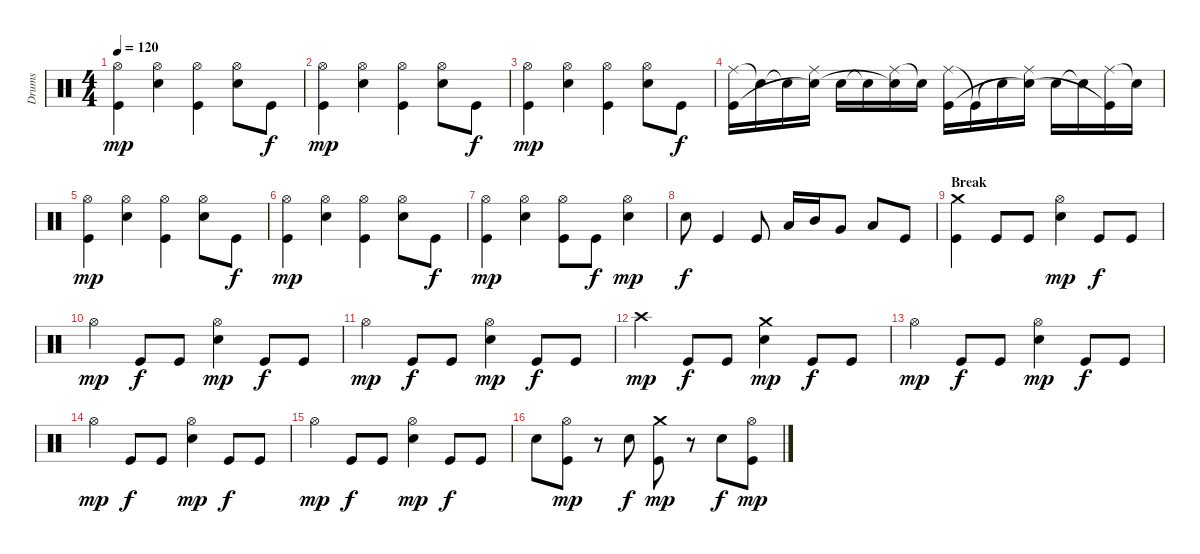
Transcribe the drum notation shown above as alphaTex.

\track ("Drums" "Drums") {instrument percussion}
\staff {score}
\articulation defaults
\ts (4 4)
\tempo 120
\clef neutral
\ks c
("Hi-Hat (open)" "Kick (hit)").4{dy mp} ("Hi-Hat (open)" "Electric Snare (hit)").4 ("Hi-Hat (open)" "Kick (hit)").4 ("Hi-Hat (open)" "Electric Snare (hit)").8 "Kick (hit)".8{dy f} |
("Hi-Hat (open)" "Kick (hit)").4{dy mp} ("Hi-Hat (open)" "Electric Snare (hit)").4 ("Hi-Hat (open)" "Kick (hit)").4 ("Hi-Hat (open)" "Electric Snare (hit)").8 "Kick (hit)".8{dy f} |
("Hi-Hat (open)" "Kick (hit)").4{dy mp} ("Hi-Hat (open)" "Electric Snare (hit)").4 ("Hi-Hat (open)" "Kick (hit)").4 ("Hi-Hat (open)" "Electric Snare (hit)").8 "Kick (hit)".8{dy f} |
("Ride (middle)" "Kick (hit)").16 "Snare (hit)"{t}.16 "Snare (hit)"{t}.16 ("Ride (middle)" "Snare (hit)"{t}).16 "Electric Snare (hit)".16 "Snare (hit)"{t}.16 ("Ride (middle)" "Snare (hit)"{t}).16 "Snare (hit)"{t}.16 ("Ride (middle)" "Kick (hit)").16 "Kick (hit)"{t}.16 "Snare (hit)"{t}.16 ("Ride (middle)" "Snare (hit)"{t}).16 "Electric Snare (hit)".16 "Snare (hit)"{t}.16 ("Ride (middle)" "Kick (hit)"{t}).16 "Snare (hit)"{t}.16 |
("Hi-Hat (open)" "Kick (hit)").4{dy mp} ("Hi-Hat (open)" "Electric Snare (hit)").4 ("Hi-Hat (open)" "Kick (hit)").4 ("Hi-Hat (open)" "Electric Snare (hit)").8 "Kick (hit)".8{dy f} |
("Hi-Hat (open)" "Kick (hit)").4{dy mp} ("Hi-Hat (open)" "Electric Snare (hit)").4 ("Hi-Hat (open)" "Kick (hit)").4 ("Hi-Hat (open)" "Electric Snare (hit)").8 "Kick (hit)".8{dy f} |
("Hi-Hat (open)" "Kick (hit)").4{dy mp} ("Hi-Hat (open)" "Electric Snare (hit)").4 ("Hi-Hat (open)" "Kick (hit)").8 "Kick (hit)".8{dy f} ("Hi-Hat (open)" "Electric Snare (hit)").4{dy mp} |
"Electric Snare (hit)".8{dy f} "Kick (hit)".4 "Kick (hit)".8 "Low Tom (hit)".16 "Mid Tom (hit)".16 "Very Low Tom (hit)".8 "Low Floor Tom (hit)".8 "Kick (hit)".8 |
\section ("" "Break")
("Crash medium (hit)" "Kick (hit)").4 "Kick (hit)".8 "Kick (hit)".8 ("Hi-Hat (open)" "Electric Snare (hit)").4{dy mp} "Kick (hit)".8{dy f} "Kick (hit)".8 |
"Hi-Hat (open)".4{dy mp} "Kick (hit)".8{dy f} "Kick (hit)".8 ("Hi-Hat (open)" "Electric Snare (hit)").4{dy mp} "Kick (hit)".8{dy f} "Kick (hit)".8 |
"Hi-Hat (open)".4{dy mp} "Kick (hit)".8{dy f} "Kick (hit)".8 ("Hi-Hat (open)" "Electric Snare (hit)").4{dy mp} "Kick (hit)".8{dy f} "Kick (hit)".8 |
"Crash high (hit)".4{dy mp} "Kick (hit)".8{dy f} "Kick (hit)".8 ("Crash medium (hit)" "Electric Snare (hit)").4{dy mp} "Kick (hit)".8{dy f} "Kick (hit)".8 |
"Hi-Hat (open)".4{dy mp} "Kick (hit)".8{dy f} "Kick (hit)".8 ("Hi-Hat (open)" "Electric Snare (hit)").4{dy mp} "Kick (hit)".8{dy f} "Kick (hit)".8 |
"Hi-Hat (open)".4{dy mp} "Kick (hit)".8{dy f} "Kick (hit)".8 ("Hi-Hat (open)" "Electric Snare (hit)").4{dy mp} "Kick (hit)".8{dy f} "Kick (hit)".8 |
"Hi-Hat (open)".4{dy mp} "Kick (hit)".8{dy f} "Kick (hit)".8 ("Hi-Hat (open)" "Electric Snare (hit)").4{dy mp} "Kick (hit)".8{dy f} "Kick (hit)".8 |
"Electric Snare (hit)".8 ("Hi-Hat (open)" "Kick (hit)").8{dy mp} r.8 "Electric Snare (hit)".8{dy f} ("Crash medium (hit)" "Kick (hit)").8{dy mp} r.8 "Electric Snare (hit)".8{dy f} ("Hi-Hat (open)" "Kick (hit)").8{dy mp}
